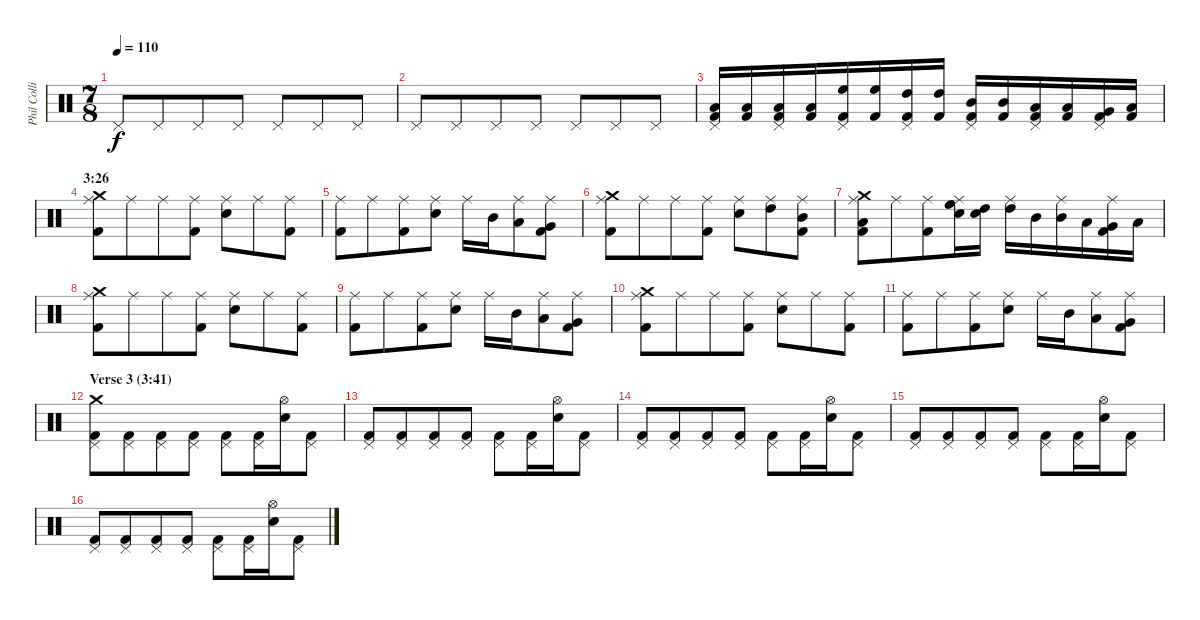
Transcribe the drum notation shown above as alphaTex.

\track ("Phil Collins (drums)" "Phil Colli") {instrument percussion}
\staff {score}
\articulation defaults
\ts (7 8)
\tempo 110
\clef neutral
\ks c "Pedal Hi-Hat (hit)".8{dy f} "Pedal Hi-Hat (hit)".8 "Pedal Hi-Hat (hit)".8 "Pedal Hi-Hat (hit)".8 "Pedal Hi-Hat (hit)".8 "Pedal Hi-Hat (hit)".8 "Pedal Hi-Hat (hit)".8
|
"Pedal Hi-Hat (hit)".8 "Pedal Hi-Hat (hit)".8 "Pedal Hi-Hat (hit)".8 "Pedal Hi-Hat (hit)".8 "Pedal Hi-Hat (hit)".8 "Pedal Hi-Hat (hit)".8 "Pedal Hi-Hat (hit)".8 |
("Low Tom (hit)" "Pedal Hi-Hat (hit)" "Kick (hit) 2").16 ("Low Tom (hit)" "Kick (hit) 2").16 ("Low Tom (hit)" "Pedal Hi-Hat (hit)" "Kick (hit) 2").16 ("Low Tom (hit)" "Kick (hit) 2").16 ("High Floor Tom (hit)" "Pedal Hi-Hat (hit)" "Kick (hit) 2").16 ("High Floor Tom (hit)" "Kick (hit) 2").16 ("High Tom (hit)" "Pedal Hi-Hat (hit)" "Kick (hit) 2").16 ("High Tom (hit)" "Kick (hit) 2").16 ("Mid Tom (hit)" "Pedal Hi-Hat (hit)" "Kick (hit) 2").16 ("Mid Tom (hit)" "Kick (hit) 2").16 ("Low Tom (hit)" "Pedal Hi-Hat (hit)" "Kick (hit) 2").16 ("Low Tom (hit)" "Kick (hit) 2").16 ("Very Low Tom (hit)" "Pedal Hi-Hat (hit)" "Kick (hit) 2").16 ("Low Floor Tom (hit)" "Kick (hit) 2").16 |
\section ("" "3:26")
("Ride (middle)" "Crash medium (hit)" "Kick (hit) 2").8 "Ride (middle)".8 "Ride (middle)".8 ("Ride (middle)" "Kick (hit) 2").8 ("Ride (middle)" "Electric Snare (hit)").8 "Ride (middle)".8 ("Ride (middle)" "Kick (hit) 2").8 |
("Ride (middle)" "Kick (hit) 2").8 "Ride (middle)".8 ("Ride (middle)" "Kick (hit) 2").8 ("Ride (middle)" "Electric Snare (hit)").8 "Ride (middle)".16 "Mid Tom (hit)".16 ("Ride (middle)" "Low Tom (hit)").8 ("Ride (middle)" "Very Low Tom (hit)" "Kick (hit) 2").8 |
("Ride (middle)" "Crash medium (hit)" "Kick (hit) 2").8 "Ride (middle)".8 "Ride (middle)".8 ("Ride (middle)" "Kick (hit) 2").8 ("Ride (middle)" "Electric Snare (hit)").8 ("Ride (middle)" "High Tom (hit)").8 ("Ride (middle)" "Mid Tom (hit)" "Kick (hit) 2").8 |
("Crash medium (hit)" "Ride (middle)" "Low Tom (hit)" "Kick (hit) 2").8 "Ride (middle)".8 ("Ride (middle)" "Kick (hit) 2").8 ("Ride (middle)" "High Floor Tom (hit)" "Electric Snare (hit)").16 ("High Tom (hit)" "Electric Snare (hit)").16 ("Ride (middle)" "High Tom (hit)").16 "Mid Tom (hit)".16 ("Ride (middle)" "Mid Tom (hit)").16 "Low Tom (hit)".16 ("Ride (middle)" "Very Low Tom (hit)" "Kick (hit) 2").16 "Low Floor Tom (hit)".16 |
("Ride (middle)" "Crash medium (hit)" "Kick (hit) 2").8 "Ride (middle)".8 "Ride (middle)".8 ("Ride (middle)" "Kick (hit) 2").8 ("Ride (middle)" "Electric Snare (hit)").8 "Ride (middle)".8 ("Ride (middle)" "Kick (hit) 2").8 |
("Ride (middle)" "Kick (hit) 2").8 "Ride (middle)".8 ("Ride (middle)" "Kick (hit) 2").8 ("Ride (middle)" "Electric Snare (hit)").8 "Ride (middle)".16 "Mid Tom (hit)".16 ("Ride (middle)" "Low Tom (hit)").8 ("Ride (middle)" "Very Low Tom (hit)" "Kick (hit) 2").8 |
("Ride (middle)" "Crash medium (hit)" "Kick (hit) 2").8 "Ride (middle)".8 "Ride (middle)".8 ("Ride (middle)" "Kick (hit) 2").8 ("Ride (middle)" "Electric Snare (hit)").8 "Ride (middle)".8 ("Ride (middle)" "Kick (hit) 2").8 |
("Ride (middle)" "Kick (hit) 2").8 "Ride (middle)".8 ("Ride (middle)" "Kick (hit) 2").8 ("Ride (middle)" "Electric Snare (hit)").8 "Ride (middle)".16 "Mid Tom (hit)".16 ("Ride (middle)" "Low Tom (hit)").8 ("Ride (middle)" "Very Low Tom (hit)" "Kick (hit) 2").8 |
\section ("" "Verse 3 (3:41)")
("Crash medium (hit)" "Pedal Hi-Hat (hit)" "Kick (hit) 2").8 ("Pedal Hi-Hat (hit)" "Kick (hit) 2").8 ("Pedal Hi-Hat (hit)" "Kick (hit) 2").8 ("Pedal Hi-Hat (hit)" "Kick (hit) 2").8 ("Pedal Hi-Hat (hit)" "Kick (hit) 2").8 ("Pedal Hi-Hat (hit)" "Kick (hit) 2").16 ("Hi-Hat (open)" "Electric Snare (hit)").16 ("Pedal Hi-Hat (hit)" "Kick (hit) 2").8 |
("Pedal Hi-Hat (hit)" "Kick (hit) 2").8 ("Pedal Hi-Hat (hit)" "Kick (hit) 2").8 ("Pedal Hi-Hat (hit)" "Kick (hit) 2").8 ("Pedal Hi-Hat (hit)" "Kick (hit) 2").8 ("Pedal Hi-Hat (hit)" "Kick (hit) 2").8 ("Pedal Hi-Hat (hit)" "Kick (hit) 2").16 ("Hi-Hat (open)" "Electric Snare (hit)").16 ("Pedal Hi-Hat (hit)" "Kick (hit) 2").8 |
("Pedal Hi-Hat (hit)" "Kick (hit) 2").8 ("Pedal Hi-Hat (hit)" "Kick (hit) 2").8 ("Pedal Hi-Hat (hit)" "Kick (hit) 2").8 ("Pedal Hi-Hat (hit)" "Kick (hit) 2").8 ("Pedal Hi-Hat (hit)" "Kick (hit) 2").8 ("Pedal Hi-Hat (hit)" "Kick (hit) 2").16 ("Hi-Hat (open)" "Electric Snare (hit)").16 ("Pedal Hi-Hat (hit)" "Kick (hit) 2").8 |
("Pedal Hi-Hat (hit)" "Kick (hit) 2").8 ("Pedal Hi-Hat (hit)" "Kick (hit) 2").8 ("Pedal Hi-Hat (hit)" "Kick (hit) 2").8 ("Pedal Hi-Hat (hit)" "Kick (hit) 2").8 ("Pedal Hi-Hat (hit)" "Kick (hit) 2").8 ("Pedal Hi-Hat (hit)" "Kick (hit) 2").16 ("Hi-Hat (open)" "Electric Snare (hit)").16 ("Pedal Hi-Hat (hit)" "Kick (hit) 2").8 |
("Pedal Hi-Hat (hit)" "Kick (hit) 2").8 ("Pedal Hi-Hat (hit)" "Kick (hit) 2").8 ("Pedal Hi-Hat (hit)" "Kick (hit) 2").8 ("Pedal Hi-Hat (hit)" "Kick (hit) 2").8 ("Pedal Hi-Hat (hit)" "Kick (hit) 2").8 ("Pedal Hi-Hat (hit)" "Kick (hit) 2").16 ("Hi-Hat (open)" "Electric Snare (hit)").16 ("Pedal Hi-Hat (hit)" "Kick (hit) 2").8
